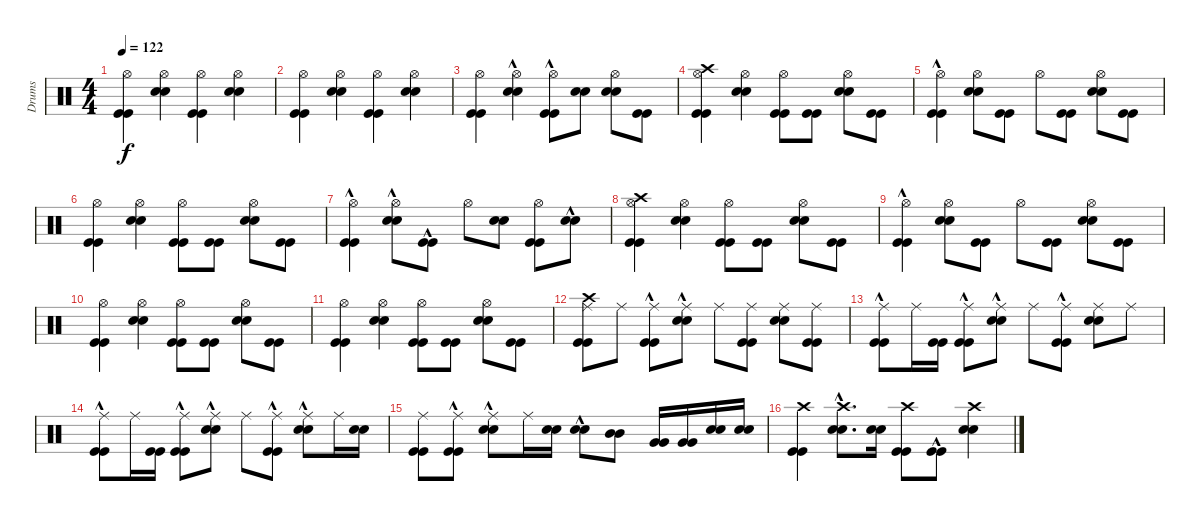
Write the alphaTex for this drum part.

\track ("Drums" "Drums") {instrument percussion}
\staff {score}
\articulation defaults
\ts (4 4)
\tempo 122
\clef neutral
\ks c
("Kick (hit)" "Kick (hit)" "Hi-Hat (open)").4{dy f} ("Snare (hit) 2" "Snare (hit) 2" "Hi-Hat (open)").4 ("Kick (hit)" "Kick (hit)" "Hi-Hat (open)").4 ("Snare (hit) 2" "Snare (hit) 2" "Hi-Hat (open)").4 |
("Kick (hit)" "Kick (hit)" "Hi-Hat (open)").4 ("Snare (hit) 2" "Snare (hit) 2" "Hi-Hat (open)").4 ("Kick (hit)" "Kick (hit)" "Hi-Hat (open)").4 ("Snare (hit) 2" "Snare (hit) 2" "Hi-Hat (open)").4 |
("Kick (hit)" "Kick (hit)" "Hi-Hat (open)").4 ("Snare (hit) 2"{hac} "Snare (hit) 2"{hac} "Hi-Hat (open)").4 ("Kick (hit)"{hac} "Kick (hit)"{hac} "Hi-Hat (open)").8 ("Snare (hit) 2" "Snare (hit) 2").8 ("Snare (hit) 2" "Snare (hit) 2" "Hi-Hat (open)").8 ("Kick (hit)" "Kick (hit)").8 |
("Kick (hit)" "Kick (hit)" "Hi-Hat (open)" "Crash high (hit)").4 ("Snare (hit) 2" "Snare (hit) 2" "Hi-Hat (open)").4 ("Kick (hit)" "Kick (hit)" "Hi-Hat (open)").8 ("Kick (hit)" "Kick (hit)").8 ("Snare (hit) 2" "Snare (hit) 2" "Hi-Hat (open)").8 ("Kick (hit)" "Kick (hit)").8 |
("Kick (hit)"{hac} "Kick (hit)"{hac} "Hi-Hat (open)").4 ("Snare (hit) 2" "Snare (hit) 2" "Hi-Hat (open)").8 ("Kick (hit)" "Kick (hit)").8 "Hi-Hat (open)".8 ("Kick (hit)" "Kick (hit)").8 ("Snare (hit) 2" "Snare (hit) 2" "Hi-Hat (open)").8 ("Kick (hit)" "Kick (hit)").8 |
("Kick (hit)" "Kick (hit)" "Hi-Hat (open)").4 ("Snare (hit) 2" "Snare (hit) 2" "Hi-Hat (open)").4 ("Kick (hit)" "Kick (hit)" "Hi-Hat (open)").8 ("Kick (hit)" "Kick (hit)").8 ("Snare (hit) 2" "Snare (hit) 2" "Hi-Hat (open)").8 ("Kick (hit)" "Kick (hit)").8 |
("Kick (hit)"{hac} "Kick (hit)"{hac} "Hi-Hat (open)").4 ("Snare (hit) 2"{hac} "Snare (hit) 2"{hac} "Hi-Hat (open)").8 ("Kick (hit)"{hac} "Kick (hit)"{hac}).8 "Hi-Hat (open)".8 ("Snare (hit) 2" "Snare (hit) 2").8 ("Kick (hit)" "Kick (hit)" "Hi-Hat (open)").8 ("Snare (hit) 2"{hac} "Snare (hit) 2"{hac}).8 |
("Kick (hit)" "Kick (hit)" "Hi-Hat (open)" "Crash high (hit)").4 ("Snare (hit) 2" "Snare (hit) 2" "Hi-Hat (open)").4 ("Kick (hit)" "Kick (hit)" "Hi-Hat (open)").8 ("Kick (hit)" "Kick (hit)").8 ("Snare (hit) 2" "Snare (hit) 2" "Hi-Hat (open)").8 ("Kick (hit)" "Kick (hit)").8 |
("Kick (hit)"{hac} "Kick (hit)"{hac} "Hi-Hat (open)").4 ("Snare (hit) 2" "Snare (hit) 2" "Hi-Hat (open)").8 ("Kick (hit)" "Kick (hit)").8 "Hi-Hat (open)".8 ("Kick (hit)" "Kick (hit)").8 ("Snare (hit) 2" "Snare (hit) 2" "Hi-Hat (open)").8 ("Kick (hit)" "Kick (hit)").8 |
("Kick (hit)" "Kick (hit)" "Hi-Hat (open)").4 ("Snare (hit) 2" "Snare (hit) 2" "Hi-Hat (open)").4 ("Kick (hit)" "Kick (hit)" "Hi-Hat (open)").8 ("Kick (hit)" "Kick (hit)").8 ("Snare (hit) 2" "Snare (hit) 2" "Hi-Hat (open)").8 ("Kick (hit)" "Kick (hit)").8 |
("Kick (hit)" "Kick (hit)" "Hi-Hat (open)").4 ("Snare (hit) 2" "Snare (hit) 2" "Hi-Hat (open)").4 ("Kick (hit)" "Kick (hit)" "Hi-Hat (open)").8 ("Kick (hit)" "Kick (hit)").8 ("Snare (hit) 2" "Snare (hit) 2" "Hi-Hat (open)").8 ("Kick (hit)" "Kick (hit)").8 |
("Kick (hit)" "Kick (hit)" "Ride (middle)" "Crash high (hit)").8 "Ride (middle)".8 ("Kick (hit)"{hac} "Kick (hit)"{hac} "Ride (middle)").8 ("Snare (hit) 2"{hac} "Snare (hit) 2"{hac} "Ride (middle)").8 "Ride (middle)".8 ("Kick (hit)" "Kick (hit)" "Ride (middle)").8 ("Snare (hit) 2" "Snare (hit) 2" "Ride (middle)").8 ("Kick (hit)" "Kick (hit)" "Ride (middle)").8 |
("Kick (hit)"{hac} "Kick (hit)"{hac} "Ride (middle)").8 "Ride (middle)".16 ("Kick (hit)" "Kick (hit)").16 ("Kick (hit)"{hac} "Kick (hit)"{hac} "Ride (middle)").8 ("Snare (hit) 2"{hac} "Snare (hit) 2"{hac} "Ride (middle)").8 "Ride (middle)".8 ("Kick (hit)"{hac} "Kick (hit)"{hac} "Ride (middle)").8 ("Snare (hit) 2" "Snare (hit) 2" "Ride (middle)").8 "Ride (middle)".8 |
("Kick (hit)"{hac} "Kick (hit)"{hac} "Ride (middle)").8 "Ride (middle)".16 ("Kick (hit)" "Kick (hit)").16 ("Kick (hit)"{hac} "Kick (hit)"{hac} "Ride (middle)").8 ("Snare (hit) 2"{hac} "Snare (hit) 2"{hac} "Ride (middle)").8 "Ride (middle)".8 ("Kick (hit)"{hac} "Kick (hit)"{hac} "Ride (middle)").8 ("Snare (hit) 2"{hac} "Snare (hit) 2"{hac} "Ride (middle)").8 "Ride (middle)".16 ("Snare (hit) 2" "Snare (hit) 2").16 |
("Kick (hit)" "Kick (hit)" "Ride (middle)").8 ("Kick (hit)"{hac} "Kick (hit)"{hac} "Ride (middle)").8 ("Snare (hit) 2"{hac} "Snare (hit) 2"{hac} "Ride (middle)").8 "Ride (middle)".16 ("Snare (hit) 2" "Snare (hit) 2").16 ("Snare (hit) 2"{hac} "Snare (hit) 2"{hac}).8 ("Mid Tom (hit)" "Mid Tom (hit)").8 ("Very Low Tom (hit)" "Very Low Tom (hit)").16 ("Very Low Tom (hit)" "Very Low Tom (hit)").16 ("Snare (hit) 2" "Snare (hit) 2").16 ("Snare (hit) 2" "Snare (hit) 2").16 |
("Kick (hit)" "Kick (hit)" "Crash high (hit)").4 ("Snare (hit) 2"{hac} "Snare (hit) 2"{hac} "Crash high (hit)").8{d} ("Snare (hit) 2" "Snare (hit) 2").16 ("Kick (hit)" "Kick (hit)" "Crash high (hit)").8 ("Kick (hit)"{hac} "Kick (hit)"{hac}).8 ("Snare (hit) 2" "Snare (hit) 2" "Crash high (hit)").4
